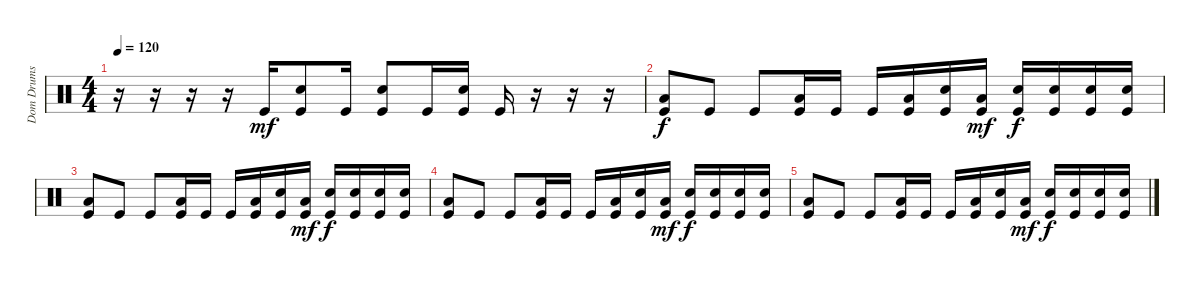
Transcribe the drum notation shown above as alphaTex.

\track ("Dom Drums" "Dom Drums") {instrument percussion}
\staff {score}
\articulation defaults
\ts (4 4)
\tempo 120
\clef neutral
\ks c
r.16{dy mf} r.16 r.16 r.16 "Kick (hit)".16 ("Electric Snare (hit)" "Kick (hit)").8 "Kick (hit)".16 ("Electric Snare (hit)" "Kick (hit)").8 "Kick (hit)".16 ("Electric Snare (hit)" "Kick (hit)").16 "Kick (hit)".16 r.16 r.16 r.16 |
("Kick (hit)" "Low Floor Tom (hit)").8{dy f} "Kick (hit)".8 "Kick (hit)".8 ("Kick (hit)" "Low Floor Tom (hit)").16 "Kick (hit)".16 "Kick (hit)".16 ("Kick (hit)" "Low Floor Tom (hit)").16 ("Kick (hit)" "Electric Snare (hit)").16 ("Kick (hit)" "Low Floor Tom (hit)").16{dy mf} ("Kick (hit)" "Electric Snare (hit)").16{dy f} ("Kick (hit)" "Electric Snare (hit)").16 ("Kick (hit)" "Electric Snare (hit)").16 ("Kick (hit)" "Electric Snare (hit)").16 |
("Kick (hit)" "Low Floor Tom (hit)").8 "Kick (hit)".8 "Kick (hit)".8 ("Kick (hit)" "Low Floor Tom (hit)").16 "Kick (hit)".16 "Kick (hit)".16 ("Kick (hit)" "Low Floor Tom (hit)").16 ("Kick (hit)" "Electric Snare (hit)").16 ("Kick (hit)" "Low Floor Tom (hit)").16{dy mf} ("Kick (hit)" "Electric Snare (hit)").16{dy f} ("Kick (hit)" "Electric Snare (hit)").16 ("Kick (hit)" "Electric Snare (hit)").16 ("Kick (hit)" "Electric Snare (hit)").16 |
("Kick (hit)" "Low Floor Tom (hit)").8 "Kick (hit)".8 "Kick (hit)".8 ("Kick (hit)" "Low Floor Tom (hit)").16 "Kick (hit)".16 "Kick (hit)".16 ("Kick (hit)" "Low Floor Tom (hit)").16 ("Kick (hit)" "Electric Snare (hit)").16 ("Kick (hit)" "Low Floor Tom (hit)").16{dy mf} ("Kick (hit)" "Electric Snare (hit)").16{dy f} ("Kick (hit)" "Electric Snare (hit)").16 ("Kick (hit)" "Electric Snare (hit)").16 ("Kick (hit)" "Electric Snare (hit)").16 |
("Kick (hit)" "Low Floor Tom (hit)").8 "Kick (hit)".8 "Kick (hit)".8 ("Kick (hit)" "Low Floor Tom (hit)").16 "Kick (hit)".16 "Kick (hit)".16 ("Kick (hit)" "Low Floor Tom (hit)").16 ("Kick (hit)" "Electric Snare (hit)").16 ("Kick (hit)" "Low Floor Tom (hit)").16{dy mf} ("Kick (hit)" "Electric Snare (hit)").16{dy f} ("Kick (hit)" "Electric Snare (hit)").16 ("Kick (hit)" "Electric Snare (hit)").16 ("Kick (hit)" "Electric Snare (hit)").16
